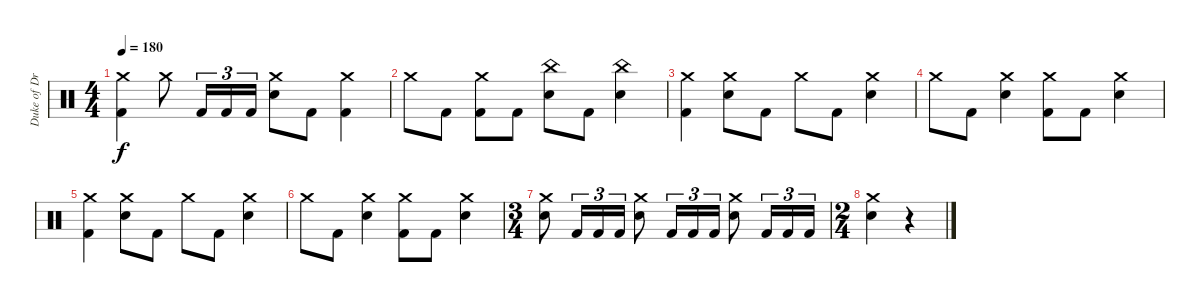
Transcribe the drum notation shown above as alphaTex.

\track ("Duke of Drumington" "Duke of Dr") {instrument percussion}
\staff {score}
\articulation defaults
\ts (4 4)
\tempo 180
\clef neutral
\ks c
("Crash medium (hit)" "Kick (hit) 2").4{dy f} "Crash medium (hit)".8 "Kick (hit) 2".16{tu (3 2)} "Kick (hit) 2".16{tu (3 2)} "Kick (hit) 2".16{tu (3 2)} ("Crash medium (hit)" "Electric Snare (hit)").8 "Kick (hit) 2".8 ("Crash medium (hit)" "Kick (hit) 2").4 |
"Crash medium (hit)".8 "Kick (hit) 2".8 ("Crash medium (hit)" "Kick (hit) 2").8 "Kick (hit) 2".8 ("China (hit)" "Electric Snare (hit)").8 "Kick (hit) 2".8 ("China (hit)" "Electric Snare (hit)").4 |
("Crash medium (hit)" "Kick (hit) 2").4 ("Crash medium (hit)" "Electric Snare (hit)").8 "Kick (hit) 2".8 "Crash medium (hit)".8 "Kick (hit) 2".8 ("Crash medium (hit)" "Electric Snare (hit)").4 |
"Crash medium (hit)".8 "Kick (hit) 2".8 ("Crash medium (hit)" "Electric Snare (hit)").4 ("Crash medium (hit)" "Kick (hit) 2").8 "Kick (hit) 2".8 ("Crash medium (hit)" "Electric Snare (hit)").4 |
("Crash medium (hit)" "Kick (hit) 2").4 ("Crash medium (hit)" "Electric Snare (hit)").8 "Kick (hit) 2".8 "Crash medium (hit)".8 "Kick (hit) 2".8 ("Crash medium (hit)" "Electric Snare (hit)").4 |
"Crash medium (hit)".8 "Kick (hit) 2".8 ("Crash medium (hit)" "Electric Snare (hit)").4 ("Crash medium (hit)" "Kick (hit) 2").8 "Kick (hit) 2".8 ("Crash medium (hit)" "Electric Snare (hit)").4 |
\ts (3 4)
("Crash medium (hit)" "Electric Snare (hit)").8 "Kick (hit) 2".16{tu (3 2)} "Kick (hit) 2".16{tu (3 2)} "Kick (hit) 2".16{tu (3 2)} ("Crash medium (hit)" "Electric Snare (hit)").8 "Kick (hit) 2".16{tu (3 2)} "Kick (hit) 2".16{tu (3 2)} "Kick (hit) 2".16{tu (3 2)} ("Crash medium (hit)" "Electric Snare (hit)").8 "Kick (hit) 2".16{tu (3 2)} "Kick (hit) 2".16{tu (3 2)} "Kick (hit) 2".16{tu (3 2)} |
\ts (2 4)
("Crash medium (hit)" "Electric Snare (hit)").4 r.4{volume 0}
